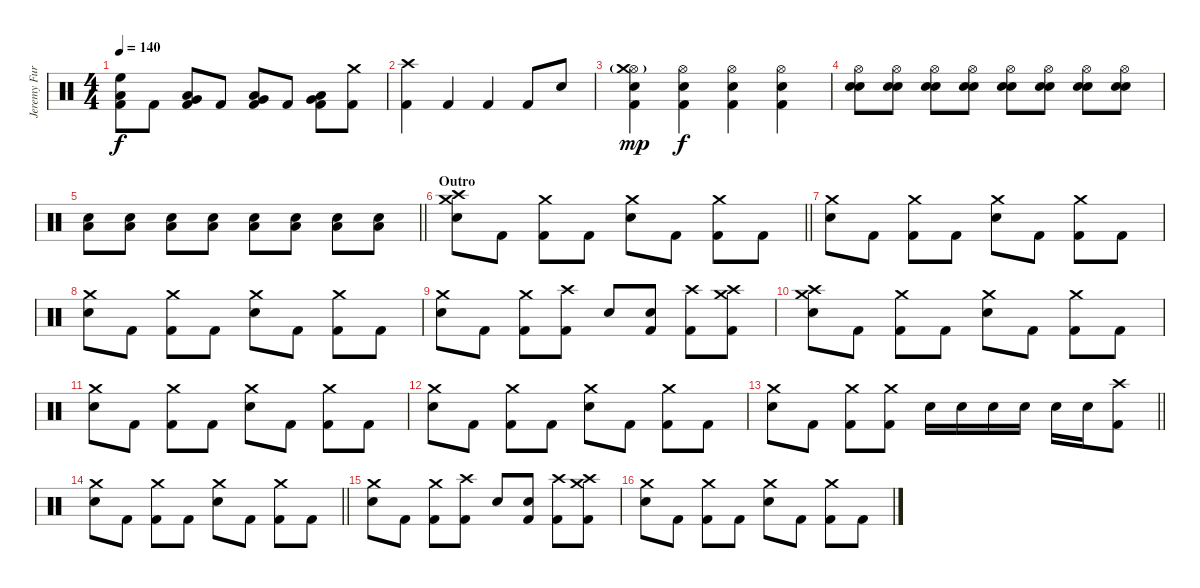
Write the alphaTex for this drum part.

\track ("Jeremy Furstenfeld" "Jeremy Fur") {instrument percussion}
\staff {score}
\articulation defaults
\ts (4 4)
\tempo 140
\clef neutral
\ks c
("High Floor Tom (hit)" "Low Tom (hit)" "Kick (hit) 2").8{dy f} "Kick (hit) 2".8 ("Low Tom (hit)" "Very Low Tom (hit)" "Kick (hit) 2").8 "Kick (hit) 2".8 ("Very Low Tom (hit)" "Low Floor Tom (hit)" "Kick (hit) 2").8 "Kick (hit) 2".8 ("Very Low Tom (hit)" "Low Floor Tom (hit)" "Kick (hit) 2").8 ("Crash medium (hit)" "Kick (hit) 2").8 |
("Crash high (hit)" "Kick (hit) 2").4 "Kick (hit) 2".4 "Kick (hit) 2".4 "Kick (hit) 2".8 "Snare (hit) 2".8 |
("Hi-Hat (open)" "Crash medium (hit)"{g} "Snare (hit) 2" "Kick (hit) 2").4{dy mp} ("Hi-Hat (open)" "Snare (hit) 2" "Kick (hit) 2").4{dy f} ("Hi-Hat (open)" "Snare (hit) 2" "Kick (hit) 2").4 ("Hi-Hat (open)" "Snare (hit) 2" "Kick (hit) 2").4 |
("Hi-Hat (open)" "Snare (hit) 2" "Snare (hit) 2").8 ("Hi-Hat (open)" "Snare (hit) 2" "Snare (hit) 2").8 ("Hi-Hat (open)" "Snare (hit) 2" "Snare (hit) 2").8 ("Hi-Hat (open)" "Snare (hit) 2" "Snare (hit) 2").8 ("Hi-Hat (open)" "Snare (hit) 2" "Snare (hit) 2").8 ("Hi-Hat (open)" "Snare (hit) 2" "Snare (hit) 2").8 ("Hi-Hat (open)" "Snare (hit) 2" "Snare (hit) 2").8 ("Hi-Hat (open)" "Snare (hit) 2" "Snare (hit) 2").8 |
\barLineRight lightlight
("Snare (hit) 2" "Low Floor Tom (hit)").8 ("Snare (hit) 2" "Low Floor Tom (hit)").8 ("Snare (hit) 2" "Low Floor Tom (hit)").8 ("Snare (hit) 2" "Low Floor Tom (hit)").8 ("Snare (hit) 2" "Low Floor Tom (hit)").8 ("Snare (hit) 2" "Low Floor Tom (hit)").8 ("Snare (hit) 2" "Low Floor Tom (hit)").8 ("Snare (hit) 2" "Low Floor Tom (hit)").8 |
\section ("" "Outro")
\barLineRight lightlight
("Crash medium (hit)" "Crash high (hit)" "Snare (hit) 2").8 "Kick (hit) 2".8 ("Crash medium (hit)" "Kick (hit) 2").8 "Kick (hit) 2".8 ("Crash medium (hit)" "Snare (hit) 2").8 "Kick (hit) 2".8 ("Crash medium (hit)" "Kick (hit) 2").8 "Kick (hit) 2".8 |
("Crash medium (hit)" "Snare (hit) 2").8 "Kick (hit) 2".8 ("Crash medium (hit)" "Kick (hit) 2").8 "Kick (hit) 2".8 ("Crash medium (hit)" "Snare (hit) 2").8 "Kick (hit) 2".8 ("Crash medium (hit)" "Kick (hit) 2").8 "Kick (hit) 2".8 |
("Crash medium (hit)" "Snare (hit) 2").8 "Kick (hit) 2".8 ("Crash medium (hit)" "Kick (hit) 2").8 "Kick (hit) 2".8 ("Crash medium (hit)" "Snare (hit) 2").8 "Kick (hit) 2".8 ("Crash medium (hit)" "Kick (hit) 2").8 "Kick (hit) 2".8 |
("Crash medium (hit)" "Snare (hit) 2").8 "Kick (hit) 2".8 ("Crash medium (hit)" "Kick (hit) 2").8 ("Crash high (hit)" "Kick (hit) 2").8 "Snare (hit) 2".8 ("Snare (hit) 2" "Kick (hit) 2").8 ("Crash high (hit)" "Kick (hit) 2").8 ("Crash medium (hit)" "Crash high (hit)" "Kick (hit) 2").8 |
("Crash medium (hit)" "Crash high (hit)" "Snare (hit) 2").8 "Kick (hit) 2".8 ("Crash medium (hit)" "Kick (hit) 2").8 "Kick (hit) 2".8 ("Crash medium (hit)" "Snare (hit) 2").8 "Kick (hit) 2".8 ("Crash medium (hit)" "Kick (hit) 2").8 "Kick (hit) 2".8 |
("Crash medium (hit)" "Snare (hit) 2").8 "Kick (hit) 2".8 ("Crash medium (hit)" "Kick (hit) 2").8 "Kick (hit) 2".8 ("Crash medium (hit)" "Snare (hit) 2").8 "Kick (hit) 2".8 ("Crash medium (hit)" "Kick (hit) 2").8 "Kick (hit) 2".8 |
("Crash medium (hit)" "Snare (hit) 2").8 "Kick (hit) 2".8 ("Crash medium (hit)" "Kick (hit) 2").8 "Kick (hit) 2".8 ("Crash medium (hit)" "Snare (hit) 2").8 "Kick (hit) 2".8 ("Crash medium (hit)" "Kick (hit) 2").8 "Kick (hit) 2".8 |
\barLineRight lightlight
("Crash medium (hit)" "Snare (hit) 2").8 "Kick (hit) 2".8 ("Crash medium (hit)" "Kick (hit) 2").8 ("Crash medium (hit)" "Kick (hit) 2").8 "Snare (hit) 2".16 "Snare (hit) 2".16 "Snare (hit) 2".16 "Snare (hit) 2".16 "Snare (hit) 2".16 "Snare (hit) 2".16 ("Crash high (hit)" "Kick (hit) 2").8 |
\barLineRight lightlight
("Crash medium (hit)" "Snare (hit) 2").8 "Kick (hit) 2".8 ("Crash medium (hit)" "Kick (hit) 2").8 "Kick (hit) 2".8 ("Crash medium (hit)" "Snare (hit) 2").8 "Kick (hit) 2".8 ("Crash medium (hit)" "Kick (hit) 2").8 "Kick (hit) 2".8 |
("Crash medium (hit)" "Snare (hit) 2").8 "Kick (hit) 2".8 ("Crash medium (hit)" "Kick (hit) 2").8 ("Crash high (hit)" "Kick (hit) 2").8 "Snare (hit) 2".8 ("Snare (hit) 2" "Kick (hit) 2").8 ("Crash high (hit)" "Kick (hit) 2").8 ("Crash medium (hit)" "Crash high (hit)" "Kick (hit) 2").8 |
("Crash medium (hit)" "Snare (hit) 2").8 "Kick (hit) 2".8 ("Crash medium (hit)" "Kick (hit) 2").8 "Kick (hit) 2".8 ("Crash medium (hit)" "Snare (hit) 2").8 "Kick (hit) 2".8 ("Crash medium (hit)" "Kick (hit) 2").8 "Kick (hit) 2".8
